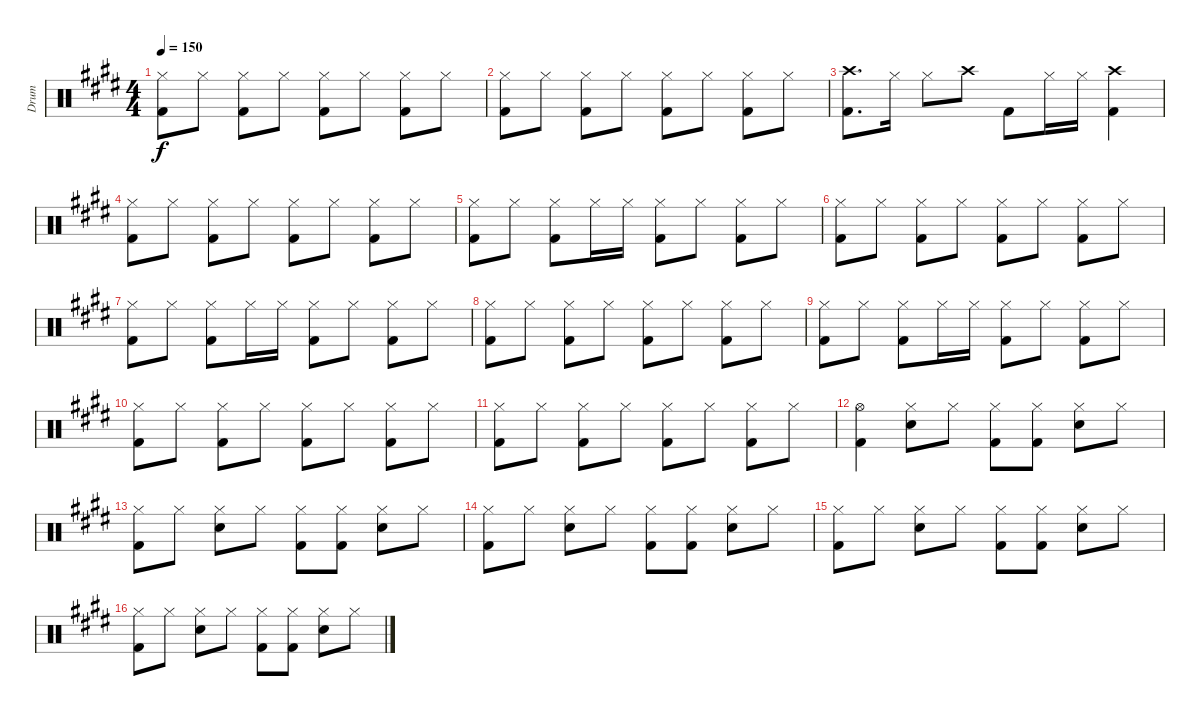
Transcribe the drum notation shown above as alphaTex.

\track ("Drum" "Drum") {instrument percussion}
\staff {score}
\articulation defaults
\ts (4 4)
\tempo 150
\clef neutral
\ks c#minor
("Hi-Hat (closed)" "Kick (hit) 2").8{dy f} "Hi-Hat (closed)".8 ("Hi-Hat (closed)" "Kick (hit) 2").8 "Hi-Hat (closed)".8 ("Hi-Hat (closed)" "Kick (hit) 2").8 "Hi-Hat (closed)".8 ("Hi-Hat (closed)" "Kick (hit) 2").8 "Hi-Hat (closed)".8 |
("Hi-Hat (closed)" "Kick (hit) 2").8 "Hi-Hat (closed)".8 ("Hi-Hat (closed)" "Kick (hit) 2").8 "Hi-Hat (closed)".8 ("Hi-Hat (closed)" "Kick (hit) 2").8 "Hi-Hat (closed)".8 ("Hi-Hat (closed)" "Kick (hit) 2").8 "Hi-Hat (closed)".8 |
("Crash high (hit)" "Kick (hit) 2").8{d} "Hi-Hat (closed)".16 "Hi-Hat (closed)".8 "Crash high (hit)".8 "Kick (hit) 2".8 "Hi-Hat (closed)".16 "Hi-Hat (closed)".16 ("Crash high (hit)" "Kick (hit) 2").4 |
("Hi-Hat (closed)" "Kick (hit) 2").8 "Hi-Hat (closed)".8 ("Hi-Hat (closed)" "Kick (hit) 2").8 "Hi-Hat (closed)".8 ("Hi-Hat (closed)" "Kick (hit) 2").8 "Hi-Hat (closed)".8 ("Hi-Hat (closed)" "Kick (hit) 2").8 "Hi-Hat (closed)".8 |
("Hi-Hat (closed)" "Kick (hit) 2").8 "Hi-Hat (closed)".8 ("Hi-Hat (closed)" "Kick (hit) 2").8 "Hi-Hat (closed)".16 "Hi-Hat (closed)".16 ("Hi-Hat (closed)" "Kick (hit) 2").8 "Hi-Hat (closed)".8 ("Hi-Hat (closed)" "Kick (hit) 2").8 "Hi-Hat (closed)".8 |
("Hi-Hat (closed)" "Kick (hit) 2").8 "Hi-Hat (closed)".8 ("Hi-Hat (closed)" "Kick (hit) 2").8 "Hi-Hat (closed)".8 ("Hi-Hat (closed)" "Kick (hit) 2").8 "Hi-Hat (closed)".8 ("Hi-Hat (closed)" "Kick (hit) 2").8 "Hi-Hat (closed)".8 |
("Hi-Hat (closed)" "Kick (hit) 2").8 "Hi-Hat (closed)".8 ("Hi-Hat (closed)" "Kick (hit) 2").8 "Hi-Hat (closed)".16 "Hi-Hat (closed)".16 ("Hi-Hat (closed)" "Kick (hit) 2").8 "Hi-Hat (closed)".8 ("Hi-Hat (closed)" "Kick (hit) 2").8 "Hi-Hat (closed)".8 |
("Hi-Hat (closed)" "Kick (hit) 2").8 "Hi-Hat (closed)".8 ("Hi-Hat (closed)" "Kick (hit) 2").8 "Hi-Hat (closed)".8 ("Hi-Hat (closed)" "Kick (hit) 2").8 "Hi-Hat (closed)".8 ("Hi-Hat (closed)" "Kick (hit) 2").8 "Hi-Hat (closed)".8 |
("Hi-Hat (closed)" "Kick (hit) 2").8 "Hi-Hat (closed)".8 ("Hi-Hat (closed)" "Kick (hit) 2").8 "Hi-Hat (closed)".16 "Hi-Hat (closed)".16 ("Hi-Hat (closed)" "Kick (hit) 2").8 "Hi-Hat (closed)".8 ("Hi-Hat (closed)" "Kick (hit) 2").8 "Hi-Hat (closed)".8 |
("Hi-Hat (closed)" "Kick (hit) 2").8 "Hi-Hat (closed)".8 ("Hi-Hat (closed)" "Kick (hit) 2").8 "Hi-Hat (closed)".8 ("Hi-Hat (closed)" "Kick (hit) 2").8 "Hi-Hat (closed)".8 ("Hi-Hat (closed)" "Kick (hit) 2").8 "Hi-Hat (closed)".8 |
("Hi-Hat (closed)" "Kick (hit) 2").8 "Hi-Hat (closed)".8 ("Hi-Hat (closed)" "Kick (hit) 2").8 "Hi-Hat (closed)".8 ("Hi-Hat (closed)" "Kick (hit) 2").8 "Hi-Hat (closed)".8 ("Hi-Hat (closed)" "Kick (hit) 2").8 "Hi-Hat (closed)".8 |
("Hi-Hat (open)" "Kick (hit) 2").4 ("Hi-Hat (closed)" "Snare (hit) 2").8 "Hi-Hat (closed)".8 ("Hi-Hat (closed)" "Kick (hit) 2").8 ("Hi-Hat (closed)" "Kick (hit) 2").8 ("Hi-Hat (closed)" "Snare (hit) 2").8 "Hi-Hat (closed)".8 |
("Hi-Hat (closed)" "Kick (hit) 2").8 "Hi-Hat (closed)".8 ("Hi-Hat (closed)" "Snare (hit) 2").8 "Hi-Hat (closed)".8 ("Hi-Hat (closed)" "Kick (hit) 2").8 ("Hi-Hat (closed)" "Kick (hit) 2").8 ("Hi-Hat (closed)" "Snare (hit) 2").8 "Hi-Hat (closed)".8 |
("Hi-Hat (closed)" "Kick (hit) 2").8 "Hi-Hat (closed)".8 ("Hi-Hat (closed)" "Snare (hit) 2").8 "Hi-Hat (closed)".8 ("Hi-Hat (closed)" "Kick (hit) 2").8 ("Hi-Hat (closed)" "Kick (hit) 2").8 ("Hi-Hat (closed)" "Snare (hit) 2").8 "Hi-Hat (closed)".8 |
("Hi-Hat (closed)" "Kick (hit) 2").8 "Hi-Hat (closed)".8 ("Hi-Hat (closed)" "Snare (hit) 2").8 "Hi-Hat (closed)".8 ("Hi-Hat (closed)" "Kick (hit) 2").8 ("Hi-Hat (closed)" "Kick (hit) 2").8 ("Hi-Hat (closed)" "Snare (hit) 2").8 "Hi-Hat (closed)".8 |
("Hi-Hat (closed)" "Kick (hit) 2").8 "Hi-Hat (closed)".8 ("Hi-Hat (closed)" "Snare (hit) 2").8 "Hi-Hat (closed)".8 ("Hi-Hat (closed)" "Kick (hit) 2").8 ("Hi-Hat (closed)" "Kick (hit) 2").8 ("Hi-Hat (closed)" "Snare (hit) 2").8 "Hi-Hat (closed)".8
